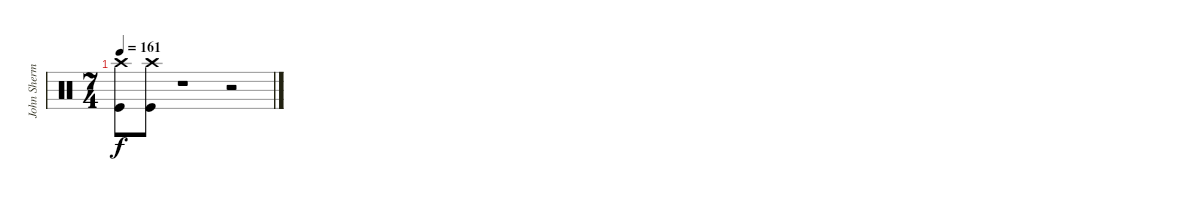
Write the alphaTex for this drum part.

\track ("John Sherman" "John Sherm") {instrument percussion}
\staff {score}
\articulation defaults
\ts (7 4)
\tempo 161
\clef neutral
\ks c
("Crash high (hit)" "Kick (hit)").8{dy f} ("Crash high (hit)" "Kick (hit)").8 r.1 r.2
